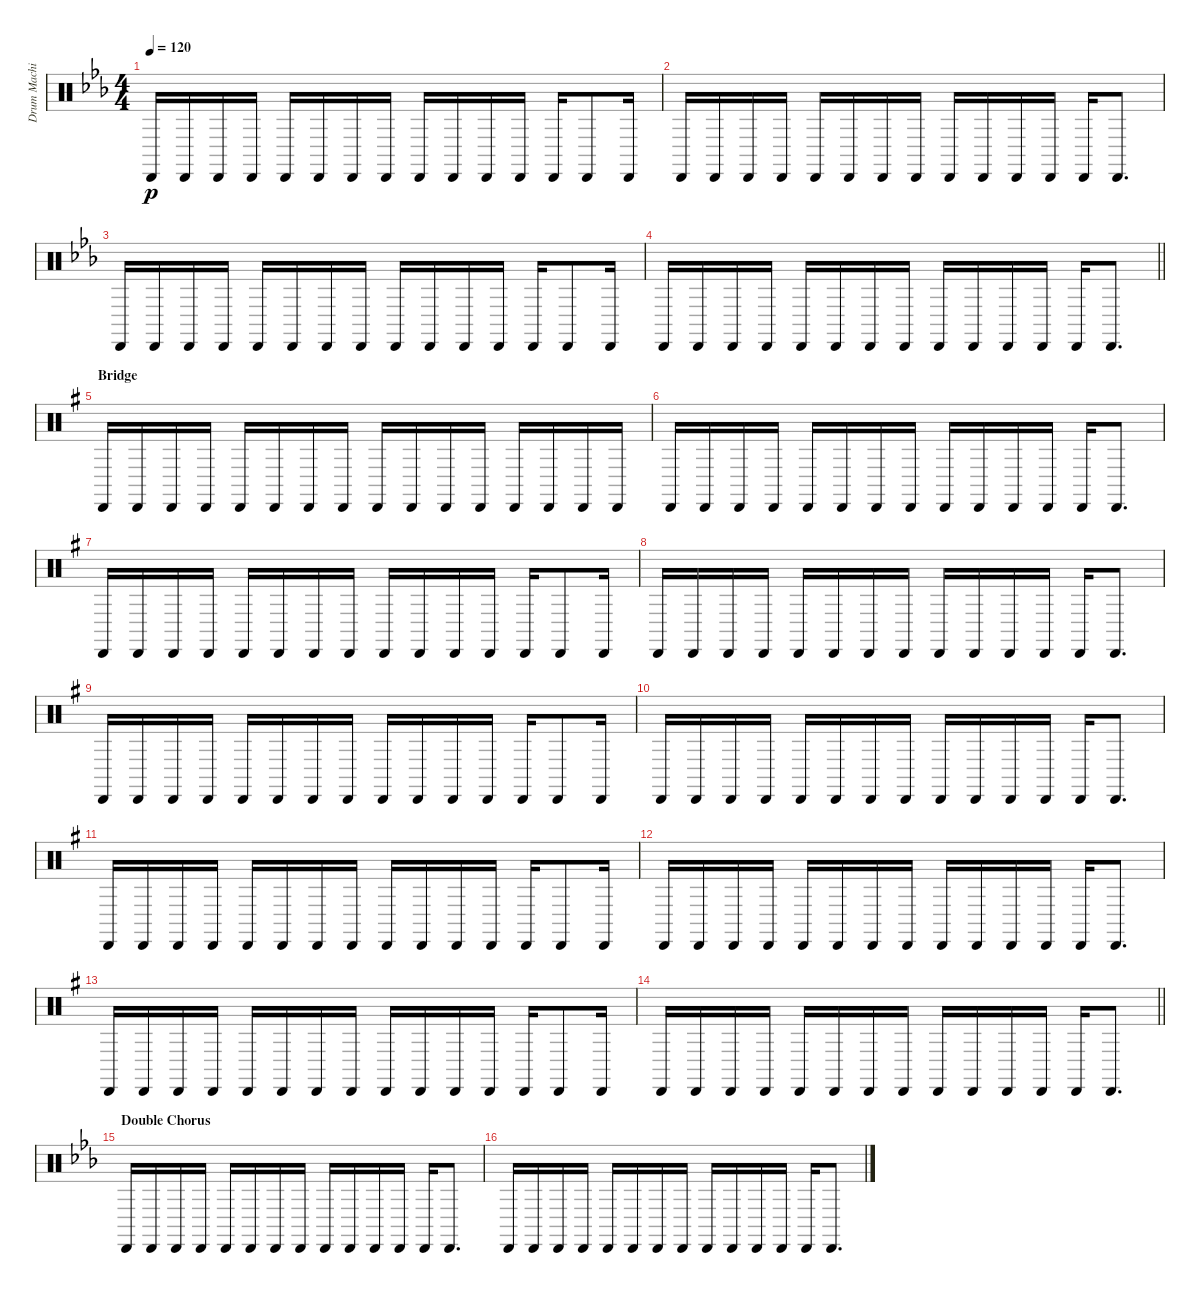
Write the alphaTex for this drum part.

\track ("Drum Machine" "Drum Machi") {instrument percussion}
\staff {score}
\articulation defaults
\ts (4 4)
\tempo 120
\clef neutral
\ks eb "Cabasa (hit)".16{dy p} "Cabasa (hit)".16 "Cabasa (hit)".16 "Cabasa (hit)".16 "Cabasa (hit)".16 "Cabasa (hit)".16 "Cabasa (hit)".16 "Cabasa (hit)".16 "Cabasa (hit)".16 "Cabasa (hit)".16 "Cabasa (hit)".16 "Cabasa (hit)".16 "Cabasa (hit)".16 "Cabasa (hit)".8 "Cabasa (hit)".16
|
"Cabasa (hit)".16 "Cabasa (hit)".16 "Cabasa (hit)".16 "Cabasa (hit)".16 "Cabasa (hit)".16 "Cabasa (hit)".16 "Cabasa (hit)".16 "Cabasa (hit)".16 "Cabasa (hit)".16 "Cabasa (hit)".16 "Cabasa (hit)".16 "Cabasa (hit)".16 "Cabasa (hit)".16 "Cabasa (hit)".8{d} |
"Cabasa (hit)".16 "Cabasa (hit)".16 "Cabasa (hit)".16 "Cabasa (hit)".16 "Cabasa (hit)".16 "Cabasa (hit)".16 "Cabasa (hit)".16 "Cabasa (hit)".16 "Cabasa (hit)".16 "Cabasa (hit)".16 "Cabasa (hit)".16 "Cabasa (hit)".16 "Cabasa (hit)".16 "Cabasa (hit)".8 "Cabasa (hit)".16 |
\barLineRight lightlight "Cabasa (hit)".16 "Cabasa (hit)".16 "Cabasa (hit)".16 "Cabasa (hit)".16 "Cabasa (hit)".16 "Cabasa (hit)".16 "Cabasa (hit)".16 "Cabasa (hit)".16 "Cabasa (hit)".16 "Cabasa (hit)".16 "Cabasa (hit)".16 "Cabasa (hit)".16 "Cabasa (hit)".16 "Cabasa (hit)".8{d}
|
\section ("" "Bridge")
\ks g "Cabasa (hit)".16 "Cabasa (hit)".16 "Cabasa (hit)".16 "Cabasa (hit)".16 "Cabasa (hit)".16 "Cabasa (hit)".16 "Cabasa (hit)".16 "Cabasa (hit)".16 "Cabasa (hit)".16 "Cabasa (hit)".16 "Cabasa (hit)".16 "Cabasa (hit)".16 "Cabasa (hit)".16 "Cabasa (hit)".16 "Cabasa (hit)".16 "Cabasa (hit)".16
|
"Cabasa (hit)".16 "Cabasa (hit)".16 "Cabasa (hit)".16 "Cabasa (hit)".16 "Cabasa (hit)".16 "Cabasa (hit)".16 "Cabasa (hit)".16 "Cabasa (hit)".16 "Cabasa (hit)".16 "Cabasa (hit)".16 "Cabasa (hit)".16 "Cabasa (hit)".16 "Cabasa (hit)".16 "Cabasa (hit)".8{d} |
"Cabasa (hit)".16 "Cabasa (hit)".16 "Cabasa (hit)".16 "Cabasa (hit)".16 "Cabasa (hit)".16 "Cabasa (hit)".16 "Cabasa (hit)".16 "Cabasa (hit)".16 "Cabasa (hit)".16 "Cabasa (hit)".16 "Cabasa (hit)".16 "Cabasa (hit)".16 "Cabasa (hit)".16 "Cabasa (hit)".8 "Cabasa (hit)".16 |
"Cabasa (hit)".16 "Cabasa (hit)".16 "Cabasa (hit)".16 "Cabasa (hit)".16 "Cabasa (hit)".16 "Cabasa (hit)".16 "Cabasa (hit)".16 "Cabasa (hit)".16 "Cabasa (hit)".16 "Cabasa (hit)".16 "Cabasa (hit)".16 "Cabasa (hit)".16 "Cabasa (hit)".16 "Cabasa (hit)".8{d} |
"Cabasa (hit)".16 "Cabasa (hit)".16 "Cabasa (hit)".16 "Cabasa (hit)".16 "Cabasa (hit)".16 "Cabasa (hit)".16 "Cabasa (hit)".16 "Cabasa (hit)".16 "Cabasa (hit)".16 "Cabasa (hit)".16 "Cabasa (hit)".16 "Cabasa (hit)".16 "Cabasa (hit)".16 "Cabasa (hit)".8 "Cabasa (hit)".16 |
"Cabasa (hit)".16 "Cabasa (hit)".16 "Cabasa (hit)".16 "Cabasa (hit)".16 "Cabasa (hit)".16 "Cabasa (hit)".16 "Cabasa (hit)".16 "Cabasa (hit)".16 "Cabasa (hit)".16 "Cabasa (hit)".16 "Cabasa (hit)".16 "Cabasa (hit)".16 "Cabasa (hit)".16 "Cabasa (hit)".8{d} |
"Cabasa (hit)".16 "Cabasa (hit)".16 "Cabasa (hit)".16 "Cabasa (hit)".16 "Cabasa (hit)".16 "Cabasa (hit)".16 "Cabasa (hit)".16 "Cabasa (hit)".16 "Cabasa (hit)".16 "Cabasa (hit)".16 "Cabasa (hit)".16 "Cabasa (hit)".16 "Cabasa (hit)".16 "Cabasa (hit)".8 "Cabasa (hit)".16 |
"Cabasa (hit)".16 "Cabasa (hit)".16 "Cabasa (hit)".16 "Cabasa (hit)".16 "Cabasa (hit)".16 "Cabasa (hit)".16 "Cabasa (hit)".16 "Cabasa (hit)".16 "Cabasa (hit)".16 "Cabasa (hit)".16 "Cabasa (hit)".16 "Cabasa (hit)".16 "Cabasa (hit)".16 "Cabasa (hit)".8{d} |
"Cabasa (hit)".16 "Cabasa (hit)".16 "Cabasa (hit)".16 "Cabasa (hit)".16 "Cabasa (hit)".16 "Cabasa (hit)".16 "Cabasa (hit)".16 "Cabasa (hit)".16 "Cabasa (hit)".16 "Cabasa (hit)".16 "Cabasa (hit)".16 "Cabasa (hit)".16 "Cabasa (hit)".16 "Cabasa (hit)".8 "Cabasa (hit)".16 |
\barLineRight lightlight "Cabasa (hit)".16 "Cabasa (hit)".16 "Cabasa (hit)".16 "Cabasa (hit)".16 "Cabasa (hit)".16 "Cabasa (hit)".16 "Cabasa (hit)".16 "Cabasa (hit)".16 "Cabasa (hit)".16 "Cabasa (hit)".16 "Cabasa (hit)".16 "Cabasa (hit)".16 "Cabasa (hit)".16 "Cabasa (hit)".8{d}
|
\section ("" "Double Chorus")
\ks eb "Cabasa (hit)".16 "Cabasa (hit)".16 "Cabasa (hit)".16 "Cabasa (hit)".16 "Cabasa (hit)".16 "Cabasa (hit)".16 "Cabasa (hit)".16 "Cabasa (hit)".16 "Cabasa (hit)".16 "Cabasa (hit)".16 "Cabasa (hit)".16 "Cabasa (hit)".16 "Cabasa (hit)".16 "Cabasa (hit)".8{d}
|
"Cabasa (hit)".16 "Cabasa (hit)".16 "Cabasa (hit)".16 "Cabasa (hit)".16 "Cabasa (hit)".16 "Cabasa (hit)".16 "Cabasa (hit)".16 "Cabasa (hit)".16 "Cabasa (hit)".16 "Cabasa (hit)".16 "Cabasa (hit)".16 "Cabasa (hit)".16 "Cabasa (hit)".16 "Cabasa (hit)".8{d}
